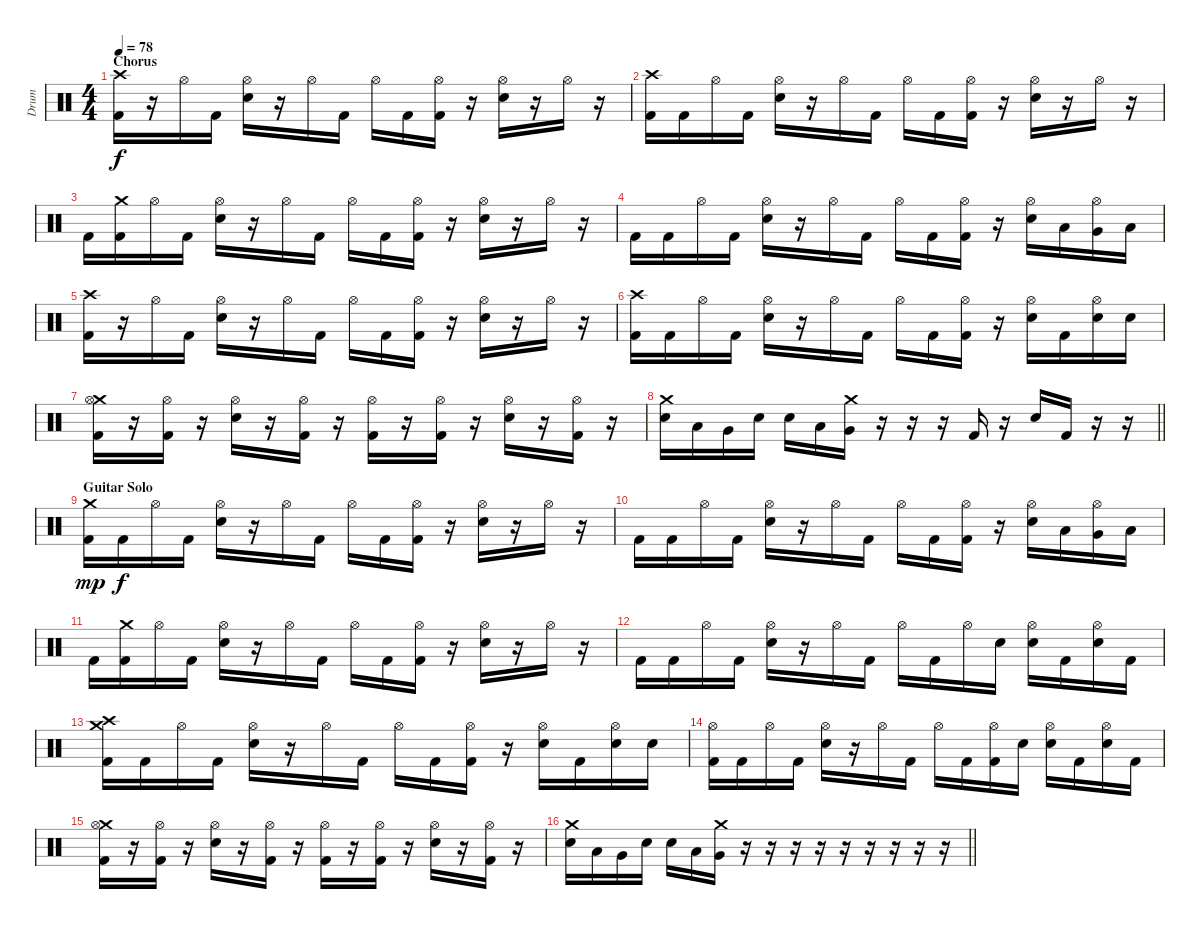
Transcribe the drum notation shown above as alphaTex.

\track ("Drum" "Drum") {instrument percussion}
\staff {score}
\articulation defaults
\ts (4 4)
\section ("" "Chorus")
\tempo 78
\clef neutral
\ks c
("Crash high (hit)" "Kick (hit) 2").16{dy f} r.16 "Hi-Hat (open)".16 "Kick (hit) 2".16 ("Electric Snare (hit)" "Hi-Hat (open)").16 r.16 "Hi-Hat (open)".16 "Kick (hit) 2".16 "Hi-Hat (open)".16 "Kick (hit) 2".16 ("Kick (hit) 2" "Hi-Hat (open)").16 r.16 ("Electric Snare (hit)" "Hi-Hat (open)").16 r.16 "Hi-Hat (open)".16 r.16 |
("Crash high (hit)" "Kick (hit) 2").16 "Kick (hit) 2".16 "Hi-Hat (open)".16 "Kick (hit) 2".16 ("Electric Snare (hit)" "Hi-Hat (open)").16 r.16 "Hi-Hat (open)".16 "Kick (hit) 2".16 "Hi-Hat (open)".16 "Kick (hit) 2".16 ("Kick (hit) 2" "Hi-Hat (open)").16 r.16 ("Electric Snare (hit)" "Hi-Hat (open)").16 r.16 "Hi-Hat (open)".16 r.16 |
"Kick (hit) 2".16 ("Crash medium (hit)" "Kick (hit) 2").16 "Hi-Hat (open)".16 "Kick (hit) 2".16 ("Electric Snare (hit)" "Hi-Hat (open)").16 r.16 "Hi-Hat (open)".16 "Kick (hit) 2".16 "Hi-Hat (open)".16 "Kick (hit) 2".16 ("Kick (hit) 2" "Hi-Hat (open)").16 r.16 ("Electric Snare (hit)" "Hi-Hat (open)").16 r.16 "Hi-Hat (open)".16 r.16 |
"Kick (hit) 2".16 "Kick (hit) 2".16 "Hi-Hat (open)".16 "Kick (hit) 2".16 ("Electric Snare (hit)" "Hi-Hat (open)").16 r.16 "Hi-Hat (open)".16 "Kick (hit) 2".16 "Hi-Hat (open)".16 "Kick (hit) 2".16 ("Kick (hit) 2" "Hi-Hat (open)").16 r.16 ("Electric Snare (hit)" "Hi-Hat (open)").16 "Low Tom (hit)".16 ("Very Low Tom (hit)" "Hi-Hat (open)").16 "Low Floor Tom (hit)".16 |
("Crash high (hit)" "Kick (hit) 2").16 r.16 "Hi-Hat (open)".16 "Kick (hit) 2".16 ("Electric Snare (hit)" "Hi-Hat (open)").16 r.16 "Hi-Hat (open)".16 "Kick (hit) 2".16 "Hi-Hat (open)".16 "Kick (hit) 2".16 ("Kick (hit) 2" "Hi-Hat (open)").16 r.16 ("Electric Snare (hit)" "Hi-Hat (open)").16 r.16 "Hi-Hat (open)".16 r.16 |
("Crash high (hit)" "Kick (hit) 2").16 "Kick (hit) 2".16 "Hi-Hat (open)".16 "Kick (hit) 2".16 ("Electric Snare (hit)" "Hi-Hat (open)").16 r.16 "Hi-Hat (open)".16 "Kick (hit) 2".16 "Hi-Hat (open)".16 "Kick (hit) 2".16 ("Kick (hit) 2" "Hi-Hat (open)").16 r.16 ("Electric Snare (hit)" "Hi-Hat (open)").16 "Kick (hit) 2".16 ("Electric Snare (hit)" "Hi-Hat (open)").16 "Electric Snare (hit)".16 |
("Crash medium (hit)" "Kick (hit) 2" "Hi-Hat (open)").16 r.16 ("Kick (hit) 2" "Hi-Hat (open)").16 r.16 ("Electric Snare (hit)" "Hi-Hat (open)").16 r.16 ("Kick (hit) 2" "Hi-Hat (open)").16 r.16 ("Kick (hit) 2" "Hi-Hat (open)").16 r.16 ("Kick (hit) 2" "Hi-Hat (open)").16 r.16 ("Electric Snare (hit)" "Hi-Hat (open)").16 r.16 ("Kick (hit) 2" "Hi-Hat (open)").16 r.16 |
\barLineRight lightlight
("Crash medium (hit)" "Electric Snare (hit)").16 "Low Tom (hit)".16 "Very Low Tom (hit)".16 "Electric Snare (hit)".16 "Electric Snare (hit)".16 "Low Tom (hit)".16 ("Crash medium (hit)" "Very Low Tom (hit)").16 r.16 r.16 r.16 "Kick (hit) 2".16 r.16 "Electric Snare (hit)".16 "Kick (hit) 2".16 r.16 r.16 |
\section ("" "Guitar Solo")
("Crash medium (hit)" "Kick (hit) 2").16{dy mp} "Kick (hit) 2".16{dy f} "Hi-Hat (open)".16 "Kick (hit) 2".16 ("Electric Snare (hit)" "Hi-Hat (open)").16 r.16 "Hi-Hat (open)".16 "Kick (hit) 2".16 "Hi-Hat (open)".16 "Kick (hit) 2".16 ("Kick (hit) 2" "Hi-Hat (open)").16 r.16 ("Electric Snare (hit)" "Hi-Hat (open)").16 r.16 "Hi-Hat (open)".16 r.16 |
"Kick (hit) 2".16 "Kick (hit) 2".16 "Hi-Hat (open)".16 "Kick (hit) 2".16 ("Electric Snare (hit)" "Hi-Hat (open)").16 r.16 "Hi-Hat (open)".16 "Kick (hit) 2".16 "Hi-Hat (open)".16 "Kick (hit) 2".16 ("Kick (hit) 2" "Hi-Hat (open)").16 r.16 ("Electric Snare (hit)" "Hi-Hat (open)").16 "Low Tom (hit)".16 ("Very Low Tom (hit)" "Hi-Hat (open)").16 "Low Floor Tom (hit)".16 |
"Kick (hit) 2".16 ("Crash medium (hit)" "Kick (hit) 2").16 "Hi-Hat (open)".16 "Kick (hit) 2".16 ("Electric Snare (hit)" "Hi-Hat (open)").16 r.16 "Hi-Hat (open)".16 "Kick (hit) 2".16 "Hi-Hat (open)".16 "Kick (hit) 2".16 ("Kick (hit) 2" "Hi-Hat (open)").16 r.16 ("Electric Snare (hit)" "Hi-Hat (open)").16 r.16 "Hi-Hat (open)".16 r.16 |
"Kick (hit) 2".16 "Kick (hit) 2".16 "Hi-Hat (open)".16 "Kick (hit) 2".16 ("Electric Snare (hit)" "Hi-Hat (open)").16 r.16 "Hi-Hat (open)".16 "Kick (hit) 2".16 "Hi-Hat (open)".16 "Kick (hit) 2".16 "Hi-Hat (open)".16 "Electric Snare (hit)".16 ("Electric Snare (hit)" "Hi-Hat (open)").16 "Kick (hit) 2".16 ("Electric Snare (hit)" "Hi-Hat (open)").16 "Kick (hit) 2".16 |
("Crash medium (hit)" "Crash high (hit)" "Kick (hit) 2").16 "Kick (hit) 2".16 "Hi-Hat (open)".16 "Kick (hit) 2".16 ("Electric Snare (hit)" "Hi-Hat (open)").16 r.16 "Hi-Hat (open)".16 "Kick (hit) 2".16 "Hi-Hat (open)".16 "Kick (hit) 2".16 ("Kick (hit) 2" "Hi-Hat (open)").16 r.16 ("Electric Snare (hit)" "Hi-Hat (open)").16 "Kick (hit) 2".16 ("Electric Snare (hit)" "Hi-Hat (open)").16 "Electric Snare (hit)".16 |
("Kick (hit) 2" "Hi-Hat (open)").16 "Kick (hit) 2".16 "Hi-Hat (open)".16 "Kick (hit) 2".16 ("Electric Snare (hit)" "Hi-Hat (open)").16 r.16 "Hi-Hat (open)".16 "Kick (hit) 2".16 "Hi-Hat (open)".16 "Kick (hit) 2".16 ("Kick (hit) 2" "Hi-Hat (open)").16 "Electric Snare (hit)".16 ("Electric Snare (hit)" "Hi-Hat (open)").16 "Kick (hit) 2".16 ("Electric Snare (hit)" "Hi-Hat (open)").16 "Kick (hit) 2".16 |
("Crash medium (hit)" "Kick (hit) 2" "Hi-Hat (open)").16 r.16 ("Kick (hit) 2" "Hi-Hat (open)").16 r.16 ("Electric Snare (hit)" "Hi-Hat (open)").16 r.16 ("Kick (hit) 2" "Hi-Hat (open)").16 r.16 ("Kick (hit) 2" "Hi-Hat (open)").16 r.16 ("Kick (hit) 2" "Hi-Hat (open)").16 r.16 ("Electric Snare (hit)" "Hi-Hat (open)").16 r.16 ("Kick (hit) 2" "Hi-Hat (open)").16 r.16 |
\barLineRight lightlight
("Crash medium (hit)" "Electric Snare (hit)").16 "Low Tom (hit)".16 "Very Low Tom (hit)".16 "Electric Snare (hit)".16 "Electric Snare (hit)".16 "Low Tom (hit)".16 ("Crash medium (hit)" "Very Low Tom (hit)").16 r.16 r.16 r.16 r.16 r.16 r.16 r.16 r.16 r.16
